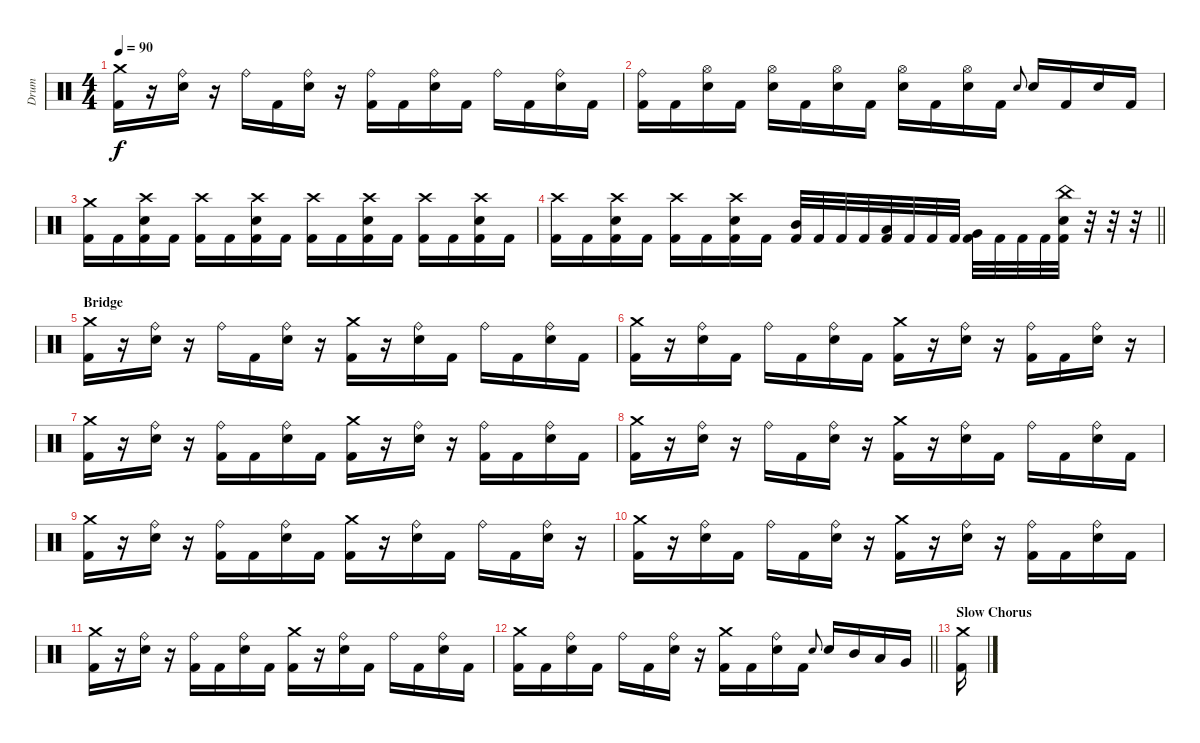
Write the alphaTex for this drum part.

\track ("Drum" "Drum") {instrument percussion}
\staff {score}
\articulation defaults
\ts (4 4)
\tempo 90
\clef neutral
\ks c
("Crash medium (hit)" "Kick (hit) 2").16{dy f} r.16 ("Ride (bell)" "Electric Snare (hit)").16 r.16 "Ride (bell)".16 "Kick (hit) 2".16 ("Ride (bell)" "Electric Snare (hit)").16 r.16 ("Ride (bell)" "Kick (hit) 2").16 "Kick (hit) 2".16 ("Ride (bell)" "Electric Snare (hit)").16 "Kick (hit) 2".16 "Ride (bell)".16 "Kick (hit) 2".16 ("Ride (bell)" "Electric Snare (hit)").16 "Kick (hit) 2".16 |
("Ride (bell)" "Kick (hit) 2").16 "Kick (hit) 2".16 ("Hi-Hat (open)" "Electric Snare (hit)").16 "Kick (hit) 2".16 ("Hi-Hat (open)" "Electric Snare (hit)").16 "Kick (hit) 2".16 ("Hi-Hat (open)" "Electric Snare (hit)").16 "Kick (hit) 2".16 ("Hi-Hat (open)" "Electric Snare (hit)").16 "Kick (hit) 2".16 ("Hi-Hat (open)" "Electric Snare (hit)").16 "Kick (hit) 2".16 "Electric Snare (hit)".8{gr onbeat} "Electric Snare (hit)".16 "Kick (hit) 2".16 "Electric Snare (hit)".16 "Kick (hit) 2".16 |
("Crash medium (hit)" "Kick (hit) 2").16 "Kick (hit) 2".16 ("Crash high (hit)" "Electric Snare (hit)" "Kick (hit) 2").16 "Kick (hit) 2".16 ("Crash high (hit)" "Kick (hit) 2").16 "Kick (hit) 2".16 ("Crash high (hit)" "Electric Snare (hit)" "Kick (hit) 2").16 "Kick (hit) 2".16 ("Crash high (hit)" "Kick (hit) 2").16 "Kick (hit) 2".16 ("Crash high (hit)" "Electric Snare (hit)" "Kick (hit) 2").16 "Kick (hit) 2".16 ("Crash high (hit)" "Kick (hit) 2").16 "Kick (hit) 2".16 ("Crash high (hit)" "Electric Snare (hit)" "Kick (hit) 2").16 "Kick (hit) 2".16 |
\barLineRight lightlight
("Crash high (hit)" "Kick (hit) 2").16 "Kick (hit) 2".16 ("Crash high (hit)" "Electric Snare (hit)" "Kick (hit) 2").16 "Kick (hit) 2".16 ("Crash high (hit)" "Kick (hit) 2").16 "Kick (hit) 2".16 ("Crash high (hit)" "Electric Snare (hit)" "Kick (hit) 2").16 "Kick (hit) 2".16 ("Mid Tom (hit)" "Kick (hit) 2").32 "Kick (hit) 2".32 "Kick (hit) 2".32 "Kick (hit) 2".32 ("Low Tom (hit)" "Kick (hit) 2").32 "Kick (hit) 2".32 "Kick (hit) 2".32 "Kick (hit) 2".32 ("Very Low Tom (hit)" "Kick (hit) 2").32 "Kick (hit) 2".32 "Kick (hit) 2".32 "Kick (hit) 2".32 ("China (hit)" "Electric Snare (hit)" "Kick (hit) 2").32 r.32 r.32 r.32 |
\section ("" "Bridge")
("Crash medium (hit)" "Kick (hit) 2").16 r.16 ("Ride (bell)" "Electric Snare (hit)").16 r.16 "Ride (bell)".16 "Kick (hit) 2".16 ("Ride (bell)" "Electric Snare (hit)").16 r.16 ("Crash medium (hit)" "Kick (hit) 2").16 r.16 ("Ride (bell)" "Electric Snare (hit)").16 "Kick (hit) 2".16 "Ride (bell)".16 "Kick (hit) 2".16 ("Ride (bell)" "Electric Snare (hit)").16 "Kick (hit) 2".16 |
("Crash medium (hit)" "Kick (hit) 2").16 r.16 ("Ride (bell)" "Electric Snare (hit)").16 "Kick (hit) 2".16 "Ride (bell)".16 "Kick (hit) 2".16 ("Ride (bell)" "Electric Snare (hit)").16 "Kick (hit) 2".16 ("Crash medium (hit)" "Kick (hit) 2").16 r.16 ("Ride (bell)" "Electric Snare (hit)").16 r.16 ("Ride (bell)" "Kick (hit) 2").16 "Kick (hit) 2".16 ("Ride (bell)" "Electric Snare (hit)").16 r.16 |
("Crash medium (hit)" "Kick (hit) 2").16 r.16 ("Ride (bell)" "Electric Snare (hit)").16 r.16 ("Ride (bell)" "Kick (hit) 2").16 "Kick (hit) 2".16 ("Ride (bell)" "Electric Snare (hit)").16 "Kick (hit) 2".16 ("Crash medium (hit)" "Kick (hit) 2").16 r.16 ("Ride (bell)" "Electric Snare (hit)").16 r.16 ("Ride (bell)" "Kick (hit) 2").16 "Kick (hit) 2".16 ("Ride (bell)" "Electric Snare (hit)").16 "Kick (hit) 2".16 |
("Crash medium (hit)" "Kick (hit) 2").16 r.16 ("Ride (bell)" "Electric Snare (hit)").16 r.16 "Ride (bell)".16 "Kick (hit) 2".16 ("Ride (bell)" "Electric Snare (hit)").16 r.16 ("Crash medium (hit)" "Kick (hit) 2").16 r.16 ("Ride (bell)" "Electric Snare (hit)").16 "Kick (hit) 2".16 "Ride (bell)".16 "Kick (hit) 2".16 ("Ride (bell)" "Electric Snare (hit)").16 "Kick (hit) 2".16 |
("Crash medium (hit)" "Kick (hit) 2").16 r.16 ("Ride (bell)" "Electric Snare (hit)").16 r.16 ("Ride (bell)" "Kick (hit) 2").16 "Kick (hit) 2".16 ("Ride (bell)" "Electric Snare (hit)").16 "Kick (hit) 2".16 ("Crash medium (hit)" "Kick (hit) 2").16 r.16 ("Ride (bell)" "Electric Snare (hit)").16 "Kick (hit) 2".16 "Ride (bell)".16 "Kick (hit) 2".16 ("Ride (bell)" "Electric Snare (hit)").16 r.16 |
("Crash medium (hit)" "Kick (hit) 2").16 r.16 ("Ride (bell)" "Electric Snare (hit)").16 "Kick (hit) 2".16 "Ride (bell)".16 "Kick (hit) 2".16 ("Ride (bell)" "Electric Snare (hit)").16 r.16 ("Crash medium (hit)" "Kick (hit) 2").16 r.16 ("Ride (bell)" "Electric Snare (hit)").16 r.16 ("Ride (bell)" "Kick (hit) 2").16 "Kick (hit) 2".16 ("Ride (bell)" "Electric Snare (hit)").16 "Kick (hit) 2".16 |
("Crash medium (hit)" "Kick (hit) 2").16 r.16 ("Ride (bell)" "Electric Snare (hit)").16 r.16 ("Ride (bell)" "Kick (hit) 2").16 "Kick (hit) 2".16 ("Ride (bell)" "Electric Snare (hit)").16 "Kick (hit) 2".16 ("Crash medium (hit)" "Kick (hit) 2").16 r.16 ("Ride (bell)" "Electric Snare (hit)").16 "Kick (hit) 2".16 "Ride (bell)".16 "Kick (hit) 2".16 ("Ride (bell)" "Electric Snare (hit)").16 "Kick (hit) 2".16 |
\barLineRight lightlight
("Crash medium (hit)" "Kick (hit) 2").16 "Kick (hit) 2".16 ("Ride (bell)" "Electric Snare (hit)").16 "Kick (hit) 2".16 "Ride (bell)".16 "Kick (hit) 2".16 ("Ride (bell)" "Electric Snare (hit)").16 r.16 ("Crash medium (hit)" "Kick (hit) 2").16 "Kick (hit) 2".16 ("Ride (bell)" "Electric Snare (hit)").16 "Kick (hit) 2".16 "Electric Snare (hit)".8{gr onbeat} "Electric Snare (hit)".16 "Mid Tom (hit)".16 "Low Tom (hit)".16 "Very Low Tom (hit)".16 |
\section ("" "Slow Chorus")
("Crash medium (hit)" "Kick (hit) 2").16
